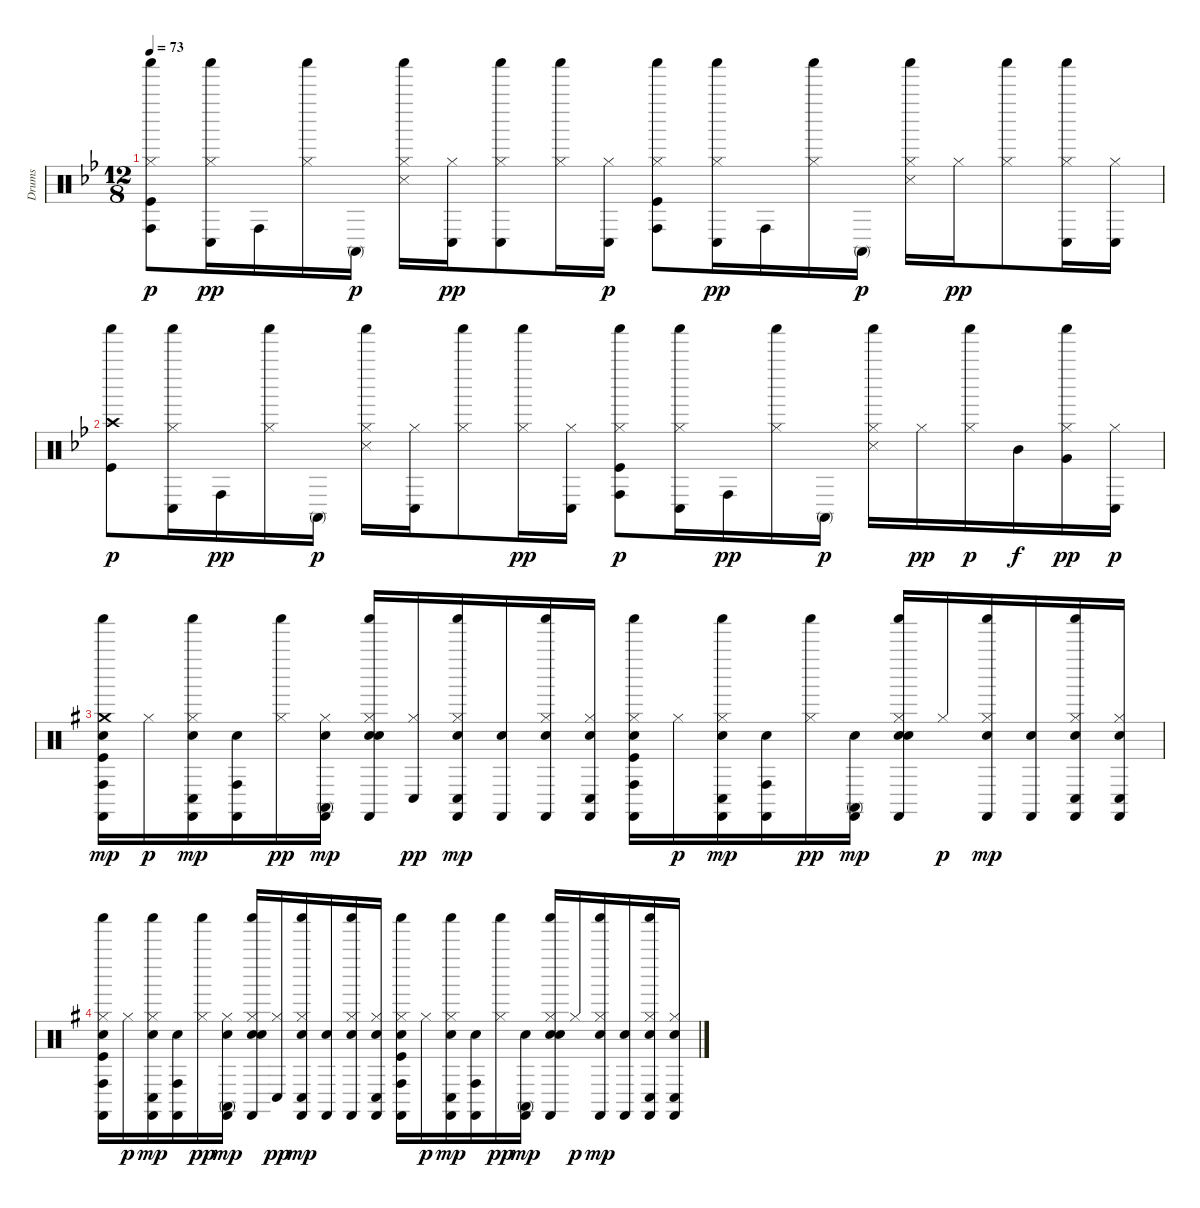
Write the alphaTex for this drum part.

\track ("Drums" "Drums") {instrument percussion}
\staff {score}
\articulation defaults
\ts (12 8)
\tempo 73
\clef neutral
\ks bb
("Kick (hit)" "Hi-Hat (closed)" "Conga high (hit)" "Shaker (hit)").8{dy p} ("Hi-Hat (closed)" "Conga low (hit)" "Shaker (hit)").16{dy pp} "Conga high (hit)".16 ("Hi-Hat (closed)" "Shaker (hit)").16 "Conga high (mute)".16{dy p} ("Snare (side stick) 3" "Hi-Hat (closed)" "Shaker (hit)").16 ("Hi-Hat (closed)" "Conga low (hit)").16{dy pp} ("Hi-Hat (closed)" "Conga low (hit)" "Shaker (hit)").8 ("Hi-Hat (closed)" "Shaker (hit)").16 ("Hi-Hat (closed)" "Conga low (hit)").16{dy p} ("Kick (hit)" "Hi-Hat (closed)" "Conga high (hit)" "Shaker (hit)").8 ("Hi-Hat (closed)" "Conga low (hit)" "Shaker (hit)").16{dy pp} "Conga high (hit)".16 ("Hi-Hat (closed)" "Shaker (hit)").16 "Conga high (mute)".16{dy p} ("Snare (side stick) 3" "Hi-Hat (closed)" "Shaker (hit)").16 "Hi-Hat (closed)".16{dy pp} ("Hi-Hat (closed)" "Shaker (hit)").8 ("Hi-Hat (closed)" "Conga low (hit)" "Shaker (hit)").16 ("Hi-Hat (closed)" "Conga low (hit)").16 |
("Kick (hit)" "Crash high (hit)" "Shaker (hit)").8{dy p} ("Hi-Hat (closed)" "Conga low (hit)" "Shaker (hit)").16 "Conga high (hit)".16{dy pp} ("Hi-Hat (closed)" "Shaker (hit)").16 "Conga high (mute)".16{dy p} ("Snare (side stick) 3" "Hi-Hat (closed)" "Shaker (hit)").16 ("Hi-Hat (closed)" "Conga low (hit)").16 ("Hi-Hat (closed)" "Shaker (hit)").8 ("Hi-Hat (closed)" "Shaker (hit)").16{dy pp} ("Hi-Hat (closed)" "Conga low (hit)").16 ("Kick (hit)" "Hi-Hat (closed)" "Conga high (hit)" "Shaker (hit)").8{dy p} ("Hi-Hat (closed)" "Conga low (hit)" "Shaker (hit)").16 "Conga high (hit)".16{dy pp} ("Hi-Hat (closed)" "Shaker (hit)").16 "Conga high (mute)".16{dy p} ("Snare (side stick) 3" "Hi-Hat (closed)" "Shaker (hit)").16 "Hi-Hat (closed)".16{dy pp} ("Hi-Hat (closed)" "Shaker (hit)").16{dy p} "Mid Tom (hit)".16{dy f} ("Hi-Hat (closed)" "Very Low Tom (hit)" "Shaker (hit)").16{dy pp} ("Hi-Hat (closed)" "Conga low (hit)").16{dy p} |
\ks g
("Kick (hit)" "Hand Clap (hit)" "Crash medium (hit)" "Conga high (hit)" "Shaker (hit)" "Castanets (hit)").16{dy mp} "Hi-Hat (closed)".16{dy p} ("Hand Clap (hit)" "Hi-Hat (closed)" "Conga low (hit)" "Shaker (hit)" "Castanets (hit)").16{dy mp} ("Hand Clap (hit)" "Conga high (hit)" "Castanets (hit)").16 ("Hi-Hat (closed)" "Shaker (hit)").16{dy pp} ("Hand Clap (hit)" "Hi-Hat (closed)" "Conga high (mute)" "Castanets (hit)").16{dy mp} ("Hand Clap (hit)" "Electric Snare (hit)" "Hi-Hat (closed)" "Shaker (hit)" "Castanets (hit)").16 ("Hi-Hat (closed)" "Conga low (hit)").16{dy pp} ("Hand Clap (hit)" "Hi-Hat (closed)" "Conga low (hit)" "Shaker (hit)" "Castanets (hit)").16{dy mp} ("Hand Clap (hit)" "Castanets (hit)").16 ("Hand Clap (hit)" "Hi-Hat (closed)" "Shaker (hit)" "Castanets (hit)").16 ("Hand Clap (hit)" "Hi-Hat (closed)" "Conga low (hit)" "Castanets (hit)").16 ("Kick (hit)" "Hand Clap (hit)" "Hi-Hat (closed)" "Conga high (hit)" "Shaker (hit)" "Castanets (hit)").16 "Hi-Hat (closed)".16{dy p} ("Hand Clap (hit)" "Hi-Hat (closed)" "Conga low (hit)" "Shaker (hit)" "Castanets (hit)").16{dy mp} ("Hand Clap (hit)" "Conga high (hit)" "Castanets (hit)").16 ("Hi-Hat (closed)" "Shaker (hit)").16{dy pp} ("Hand Clap (hit)" "Conga high (mute)" "Castanets (hit)").16{dy mp} ("Hand Clap (hit)" "Electric Snare (hit)" "Hi-Hat (closed)" "Shaker (hit)" "Castanets (hit)").16 "Hi-Hat (closed)".16{dy p} ("Hand Clap (hit)" "Hi-Hat (closed)" "Shaker (hit)" "Castanets (hit)").16{dy mp} ("Hand Clap (hit)" "Castanets (hit)").16 ("Hand Clap (hit)" "Hi-Hat (closed)" "Conga low (hit)" "Shaker (hit)" "Castanets (hit)").16 ("Hand Clap (hit)" "Hi-Hat (closed)" "Conga low (hit)" "Castanets (hit)").16 |
("Kick (hit)" "Hand Clap (hit)" "Hi-Hat (closed)" "Conga high (hit)" "Shaker (hit)" "Castanets (hit)").16 "Hi-Hat (closed)".16{dy p} ("Hand Clap (hit)" "Hi-Hat (closed)" "Conga low (hit)" "Shaker (hit)" "Castanets (hit)").16{dy mp} ("Hand Clap (hit)" "Conga high (hit)" "Castanets (hit)").16 ("Hi-Hat (closed)" "Shaker (hit)").16{dy pp} ("Hand Clap (hit)" "Hi-Hat (closed)" "Conga high (mute)" "Castanets (hit)").16{dy mp} ("Hand Clap (hit)" "Electric Snare (hit)" "Hi-Hat (closed)" "Shaker (hit)" "Castanets (hit)").16 ("Hi-Hat (closed)" "Conga low (hit)").16{dy pp} ("Hand Clap (hit)" "Hi-Hat (closed)" "Conga low (hit)" "Shaker (hit)" "Castanets (hit)").16{dy mp} ("Hand Clap (hit)" "Castanets (hit)").16 ("Hand Clap (hit)" "Hi-Hat (closed)" "Shaker (hit)" "Castanets (hit)").16 ("Hand Clap (hit)" "Hi-Hat (closed)" "Conga low (hit)" "Castanets (hit)").16 ("Kick (hit)" "Hand Clap (hit)" "Hi-Hat (closed)" "Conga high (hit)" "Shaker (hit)" "Castanets (hit)").16 "Hi-Hat (closed)".16{dy p} ("Hand Clap (hit)" "Hi-Hat (closed)" "Conga low (hit)" "Shaker (hit)" "Castanets (hit)").16{dy mp} ("Hand Clap (hit)" "Conga high (hit)" "Castanets (hit)").16 ("Hi-Hat (closed)" "Shaker (hit)").16{dy pp} ("Hand Clap (hit)" "Conga high (mute)" "Castanets (hit)").16{dy mp} ("Hand Clap (hit)" "Electric Snare (hit)" "Hi-Hat (closed)" "Shaker (hit)" "Castanets (hit)").16 "Hi-Hat (closed)".16{dy p} ("Hand Clap (hit)" "Hi-Hat (closed)" "Shaker (hit)" "Castanets (hit)").16{dy mp} ("Hand Clap (hit)" "Castanets (hit)").16 ("Hand Clap (hit)" "Hi-Hat (closed)" "Conga low (hit)" "Shaker (hit)" "Castanets (hit)").16 ("Hand Clap (hit)" "Hi-Hat (closed)" "Conga low (hit)" "Castanets (hit)").16
